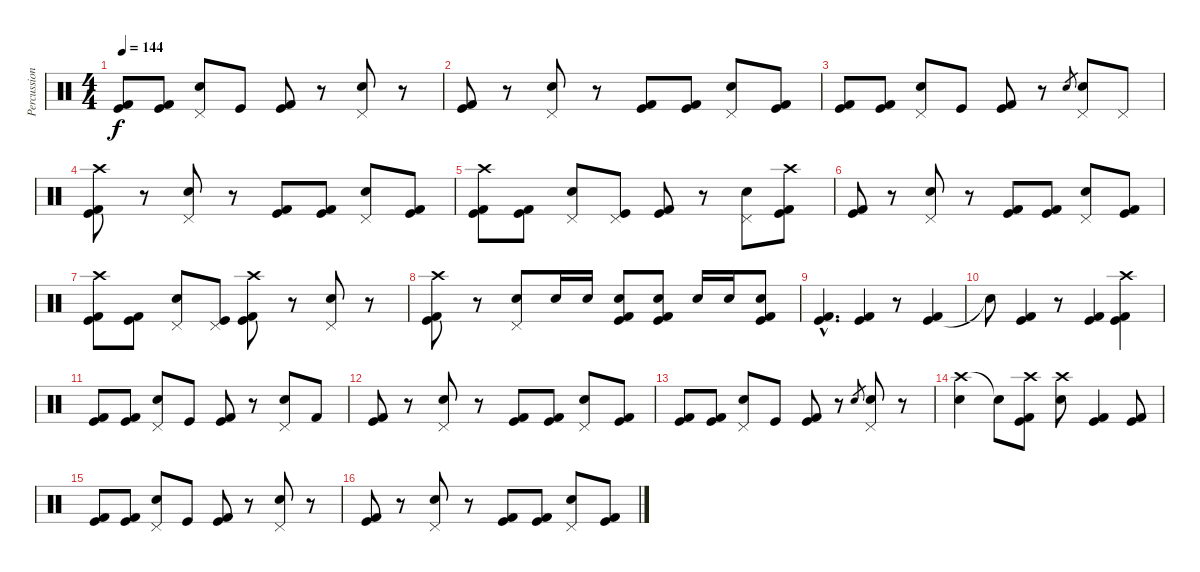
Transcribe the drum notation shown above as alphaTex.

\track ("Percussions" "Percussion") {instrument percussion}
\staff {score}
\articulation defaults
\ts (4 4)
\tempo 144
\clef neutral
\ks c
("Kick (hit)" "Kick (hit) 2").8{dy f} ("Kick (hit)" "Kick (hit) 2").8 ("Pedal Hi-Hat (hit)" "Snare (hit) 2").8 "Kick (hit)".8 ("Kick (hit)" "Kick (hit) 2").8 r.8 ("Pedal Hi-Hat (hit)" "Snare (hit) 2").8 r.8 |
("Kick (hit)" "Kick (hit) 2").8 r.8 ("Pedal Hi-Hat (hit)" "Snare (hit) 2").8 r.8 ("Kick (hit)" "Kick (hit) 2").8 ("Kick (hit)" "Kick (hit) 2").8 ("Pedal Hi-Hat (hit)" "Snare (hit) 2").8 ("Kick (hit)" "Kick (hit) 2").8 |
("Kick (hit)" "Kick (hit) 2").8 ("Kick (hit)" "Kick (hit) 2").8 ("Pedal Hi-Hat (hit)" "Snare (hit) 2").8 "Kick (hit)".8 ("Kick (hit)" "Kick (hit) 2").8 r.8 "Snare (hit) 2".8{gr} ("Pedal Hi-Hat (hit)" "Snare (hit) 2").8 "Pedal Hi-Hat (hit)".8 |
("Crash high (hit)" "Kick (hit)" "Kick (hit) 2").8 r.8 ("Pedal Hi-Hat (hit)" "Snare (hit) 2").8 r.8 ("Kick (hit)" "Kick (hit) 2").8 ("Kick (hit)" "Kick (hit) 2").8 ("Pedal Hi-Hat (hit)" "Snare (hit) 2").8 ("Kick (hit)" "Kick (hit) 2").8 |
("Crash high (hit)" "Kick (hit)" "Kick (hit) 2").8 ("Kick (hit)" "Kick (hit) 2").8 ("Pedal Hi-Hat (hit)" "Snare (hit) 2").8 ("Pedal Hi-Hat (hit)" "Kick (hit)").8 ("Kick (hit)" "Kick (hit) 2").8 r.8 ("Pedal Hi-Hat (hit)" "Snare (hit) 2").8 ("Crash high (hit)" "Kick (hit)" "Kick (hit) 2").8 |
("Kick (hit)" "Kick (hit) 2").8 r.8 ("Pedal Hi-Hat (hit)" "Snare (hit) 2").8 r.8 ("Kick (hit)" "Kick (hit) 2").8 ("Kick (hit)" "Kick (hit) 2").8 ("Pedal Hi-Hat (hit)" "Snare (hit) 2").8 ("Kick (hit)" "Kick (hit) 2").8 |
("Crash high (hit)" "Kick (hit)" "Kick (hit) 2").8 ("Kick (hit)" "Kick (hit) 2").8 ("Pedal Hi-Hat (hit)" "Snare (hit) 2").8 ("Pedal Hi-Hat (hit)" "Kick (hit)").8 ("Crash high (hit)" "Kick (hit)" "Kick (hit) 2").8 r.8 ("Pedal Hi-Hat (hit)" "Snare (hit) 2").8 r.8 |
("Crash high (hit)" "Kick (hit)" "Kick (hit) 2").8 r.8 ("Electric Snare (hit)" "Pedal Hi-Hat (hit)").8 "Electric Snare (hit)".16 "Electric Snare (hit)".16 ("Electric Snare (hit)" "Kick (hit)" "Kick (hit) 2").8 ("Electric Snare (hit)" "Kick (hit)" "Kick (hit) 2").8 "Electric Snare (hit)".16 "Electric Snare (hit)".16 ("Electric Snare (hit)" "Kick (hit)" "Kick (hit) 2").8 |
("Kick (hit)"{hac} "Kick (hit) 2"{hac}).4{d} ("Kick (hit)" "Kick (hit) 2").4 r.8 ("Kick (hit)" "Kick (hit) 2").4 |
"Snare (hit)"{t}.8 ("Kick (hit)" "Kick (hit) 2").4 r.8 ("Kick (hit)" "Kick (hit) 2").4 ("Crash high (hit)" "Kick (hit)" "Kick (hit) 2").4 |
("Kick (hit)" "Kick (hit) 2").8 ("Kick (hit)" "Kick (hit) 2").8 ("Pedal Hi-Hat (hit)" "Snare (hit) 2").8 "Kick (hit)".8 ("Kick (hit)" "Kick (hit) 2").8 r.8 ("Pedal Hi-Hat (hit)" "Snare (hit) 2").8 "Kick (hit) 2".8 |
("Kick (hit)" "Kick (hit) 2").8 r.8 ("Pedal Hi-Hat (hit)" "Snare (hit) 2").8 r.8 ("Kick (hit)" "Kick (hit) 2").8 ("Kick (hit)" "Kick (hit) 2").8 ("Pedal Hi-Hat (hit)" "Snare (hit) 2").8 ("Kick (hit)" "Kick (hit) 2").8 |
("Kick (hit)" "Kick (hit) 2").8 ("Kick (hit)" "Kick (hit) 2").8 ("Pedal Hi-Hat (hit)" "Snare (hit) 2").8 "Kick (hit)".8 ("Kick (hit)" "Kick (hit) 2").8 r.8 "Snare (hit) 2".8{gr} ("Pedal Hi-Hat (hit)" "Snare (hit) 2").8 r.8 |
("Crash high (hit)" "Snare (hit) 2").4 "Snare (hit)"{t}.8 ("Crash high (hit)" "Kick (hit)" "Kick (hit) 2").8 ("Crash high (hit)" "Snare (hit) 2").8 ("Kick (hit)" "Kick (hit) 2").4 ("Kick (hit)" "Kick (hit) 2").8 |
("Kick (hit)" "Kick (hit) 2").8 ("Kick (hit)" "Kick (hit) 2").8 ("Pedal Hi-Hat (hit)" "Snare (hit) 2").8 "Kick (hit)".8 ("Kick (hit)" "Kick (hit) 2").8 r.8 ("Pedal Hi-Hat (hit)" "Snare (hit) 2").8 r.8 |
("Kick (hit)" "Kick (hit) 2").8 r.8 ("Pedal Hi-Hat (hit)" "Snare (hit) 2").8 r.8 ("Kick (hit)" "Kick (hit) 2").8 ("Kick (hit)" "Kick (hit) 2").8 ("Pedal Hi-Hat (hit)" "Snare (hit) 2").8 ("Kick (hit)" "Kick (hit) 2").8
